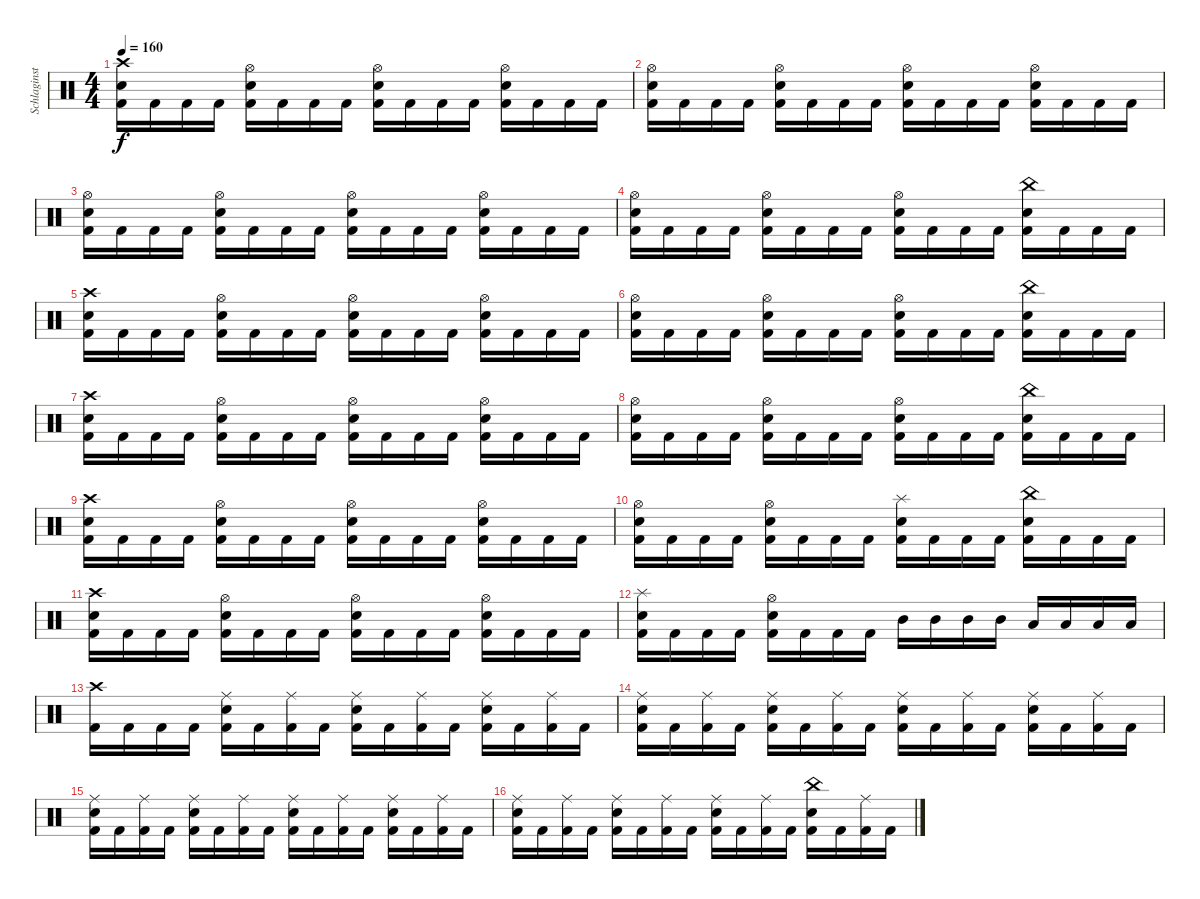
\track ("Schlaginstrumente - Auswahl" "Schlaginst") {instrument percussion}
\staff {score}
\articulation defaults
\ts (4 4)
\tempo 160
\clef neutral
\ks c
("Crash high (hit)" "Snare (hit) 2" "Kick (hit) 2").16{dy f} "Kick (hit) 2".16 "Kick (hit) 2".16 "Kick (hit) 2".16 ("Hi-Hat (open)" "Snare (hit) 2" "Kick (hit) 2").16 "Kick (hit) 2".16 "Kick (hit) 2".16 "Kick (hit) 2".16 ("Hi-Hat (open)" "Snare (hit) 2" "Kick (hit) 2").16 "Kick (hit) 2".16 "Kick (hit) 2".16 "Kick (hit) 2".16 ("Hi-Hat (open)" "Snare (hit) 2" "Kick (hit) 2").16 "Kick (hit) 2".16 "Kick (hit) 2".16 "Kick (hit) 2".16 |
("Hi-Hat (open)" "Snare (hit) 2" "Kick (hit) 2").16 "Kick (hit) 2".16 "Kick (hit) 2".16 "Kick (hit) 2".16 ("Hi-Hat (open)" "Snare (hit) 2" "Kick (hit) 2").16 "Kick (hit) 2".16 "Kick (hit) 2".16 "Kick (hit) 2".16 ("Hi-Hat (open)" "Snare (hit) 2" "Kick (hit) 2").16 "Kick (hit) 2".16 "Kick (hit) 2".16 "Kick (hit) 2".16 ("Hi-Hat (open)" "Snare (hit) 2" "Kick (hit) 2").16 "Kick (hit) 2".16 "Kick (hit) 2".16 "Kick (hit) 2".16 |
("Hi-Hat (open)" "Snare (hit) 2" "Kick (hit) 2").16 "Kick (hit) 2".16 "Kick (hit) 2".16 "Kick (hit) 2".16 ("Hi-Hat (open)" "Snare (hit) 2" "Kick (hit) 2").16 "Kick (hit) 2".16 "Kick (hit) 2".16 "Kick (hit) 2".16 ("Hi-Hat (open)" "Snare (hit) 2" "Kick (hit) 2").16 "Kick (hit) 2".16 "Kick (hit) 2".16 "Kick (hit) 2".16 ("Hi-Hat (open)" "Snare (hit) 2" "Kick (hit) 2").16 "Kick (hit) 2".16 "Kick (hit) 2".16 "Kick (hit) 2".16 |
("Hi-Hat (open)" "Snare (hit) 2" "Kick (hit) 2").16 "Kick (hit) 2".16 "Kick (hit) 2".16 "Kick (hit) 2".16 ("Hi-Hat (open)" "Snare (hit) 2" "Kick (hit) 2").16 "Kick (hit) 2".16 "Kick (hit) 2".16 "Kick (hit) 2".16 ("Hi-Hat (open)" "Snare (hit) 2" "Kick (hit) 2").16 "Kick (hit) 2".16 "Kick (hit) 2".16 "Kick (hit) 2".16 ("China (hit)" "Snare (hit) 2" "Kick (hit) 2").16 "Kick (hit) 2".16 "Kick (hit) 2".16 "Kick (hit) 2".16 |
("Crash high (hit)" "Snare (hit) 2" "Kick (hit) 2").16 "Kick (hit) 2".16 "Kick (hit) 2".16 "Kick (hit) 2".16 ("Hi-Hat (open)" "Snare (hit) 2" "Kick (hit) 2").16 "Kick (hit) 2".16 "Kick (hit) 2".16 "Kick (hit) 2".16 ("Hi-Hat (open)" "Snare (hit) 2" "Kick (hit) 2").16 "Kick (hit) 2".16 "Kick (hit) 2".16 "Kick (hit) 2".16 ("Hi-Hat (open)" "Snare (hit) 2" "Kick (hit) 2").16 "Kick (hit) 2".16 "Kick (hit) 2".16 "Kick (hit) 2".16 |
("Hi-Hat (open)" "Snare (hit) 2" "Kick (hit) 2").16 "Kick (hit) 2".16 "Kick (hit) 2".16 "Kick (hit) 2".16 ("Hi-Hat (open)" "Snare (hit) 2" "Kick (hit) 2").16 "Kick (hit) 2".16 "Kick (hit) 2".16 "Kick (hit) 2".16 ("Hi-Hat (open)" "Snare (hit) 2" "Kick (hit) 2").16 "Kick (hit) 2".16 "Kick (hit) 2".16 "Kick (hit) 2".16 ("China (hit)" "Snare (hit) 2" "Kick (hit) 2").16 "Kick (hit) 2".16 "Kick (hit) 2".16 "Kick (hit) 2".16 |
("Crash high (hit)" "Snare (hit) 2" "Kick (hit) 2").16 "Kick (hit) 2".16 "Kick (hit) 2".16 "Kick (hit) 2".16 ("Hi-Hat (open)" "Snare (hit) 2" "Kick (hit) 2").16 "Kick (hit) 2".16 "Kick (hit) 2".16 "Kick (hit) 2".16 ("Hi-Hat (open)" "Snare (hit) 2" "Kick (hit) 2").16 "Kick (hit) 2".16 "Kick (hit) 2".16 "Kick (hit) 2".16 ("Hi-Hat (open)" "Snare (hit) 2" "Kick (hit) 2").16 "Kick (hit) 2".16 "Kick (hit) 2".16 "Kick (hit) 2".16 |
("Hi-Hat (open)" "Snare (hit) 2" "Kick (hit) 2").16 "Kick (hit) 2".16 "Kick (hit) 2".16 "Kick (hit) 2".16 ("Hi-Hat (open)" "Snare (hit) 2" "Kick (hit) 2").16 "Kick (hit) 2".16 "Kick (hit) 2".16 "Kick (hit) 2".16 ("Hi-Hat (open)" "Snare (hit) 2" "Kick (hit) 2").16 "Kick (hit) 2".16 "Kick (hit) 2".16 "Kick (hit) 2".16 ("China (hit)" "Snare (hit) 2" "Kick (hit) 2").16 "Kick (hit) 2".16 "Kick (hit) 2".16 "Kick (hit) 2".16 |
("Crash high (hit)" "Snare (hit) 2" "Kick (hit) 2").16 "Kick (hit) 2".16 "Kick (hit) 2".16 "Kick (hit) 2".16 ("Hi-Hat (open)" "Snare (hit) 2" "Kick (hit) 2").16 "Kick (hit) 2".16 "Kick (hit) 2".16 "Kick (hit) 2".16 ("Hi-Hat (open)" "Snare (hit) 2" "Kick (hit) 2").16 "Kick (hit) 2".16 "Kick (hit) 2".16 "Kick (hit) 2".16 ("Hi-Hat (open)" "Snare (hit) 2" "Kick (hit) 2").16 "Kick (hit) 2".16 "Kick (hit) 2".16 "Kick (hit) 2".16 |
("Hi-Hat (open)" "Snare (hit) 2" "Kick (hit) 2").16 "Kick (hit) 2".16 "Kick (hit) 2".16 "Kick (hit) 2".16 ("Hi-Hat (open)" "Snare (hit) 2" "Kick (hit) 2").16 "Kick (hit) 2".16 "Kick (hit) 2".16 "Kick (hit) 2".16 ("Splash (hit)" "Snare (hit) 2" "Kick (hit) 2").16 "Kick (hit) 2".16 "Kick (hit) 2".16 "Kick (hit) 2".16 ("China (hit)" "Snare (hit) 2" "Kick (hit) 2").16 "Kick (hit) 2".16 "Kick (hit) 2".16 "Kick (hit) 2".16 |
("Crash high (hit)" "Snare (hit) 2" "Kick (hit) 2").16 "Kick (hit) 2".16 "Kick (hit) 2".16 "Kick (hit) 2".16 ("Hi-Hat (open)" "Snare (hit) 2" "Kick (hit) 2").16 "Kick (hit) 2".16 "Kick (hit) 2".16 "Kick (hit) 2".16 ("Hi-Hat (open)" "Snare (hit) 2" "Kick (hit) 2").16 "Kick (hit) 2".16 "Kick (hit) 2".16 "Kick (hit) 2".16 ("Hi-Hat (open)" "Snare (hit) 2" "Kick (hit) 2").16 "Kick (hit) 2".16 "Kick (hit) 2".16 "Kick (hit) 2".16 |
("Splash (hit)" "Snare (hit) 2" "Kick (hit) 2").16 "Kick (hit) 2".16 "Kick (hit) 2".16 "Kick (hit) 2".16 ("Hi-Hat (open)" "Snare (hit) 2" "Kick (hit) 2").16 "Kick (hit) 2".16 "Kick (hit) 2".16 "Kick (hit) 2".16 "Mid Tom (hit)".16 "Mid Tom (hit)".16 "Mid Tom (hit)".16 "Mid Tom (hit)".16 "Low Tom (hit)".16 "Low Tom (hit)".16 "Low Tom (hit)".16 "Low Tom (hit)".16 |
("Crash high (hit)" "Kick (hit) 2").16 "Kick (hit) 2".16 "Kick (hit) 2".16 "Kick (hit) 2".16 ("Ride (middle)" "Snare (hit) 2" "Kick (hit) 2").16 "Kick (hit) 2".16 ("Ride (middle)" "Kick (hit) 2").16 "Kick (hit) 2".16 ("Ride (middle)" "Snare (hit) 2" "Kick (hit) 2").16 "Kick (hit) 2".16 ("Ride (middle)" "Kick (hit) 2").16 "Kick (hit) 2".16 ("Ride (middle)" "Snare (hit) 2" "Kick (hit) 2").16 "Kick (hit) 2".16 ("Ride (middle)" "Kick (hit) 2").16 "Kick (hit) 2".16 |
("Ride (middle)" "Snare (hit) 2" "Kick (hit) 2").16 "Kick (hit) 2".16 ("Ride (middle)" "Kick (hit) 2").16 "Kick (hit) 2".16 ("Ride (middle)" "Snare (hit) 2" "Kick (hit) 2").16 "Kick (hit) 2".16 ("Ride (middle)" "Kick (hit) 2").16 "Kick (hit) 2".16 ("Ride (middle)" "Snare (hit) 2" "Kick (hit) 2").16 "Kick (hit) 2".16 ("Ride (middle)" "Kick (hit) 2").16 "Kick (hit) 2".16 ("Ride (middle)" "Snare (hit) 2" "Kick (hit) 2").16 "Kick (hit) 2".16 ("Ride (middle)" "Kick (hit) 2").16 "Kick (hit) 2".16 |
("Ride (middle)" "Snare (hit) 2" "Kick (hit) 2").16 "Kick (hit) 2".16 ("Ride (middle)" "Kick (hit) 2").16 "Kick (hit) 2".16 ("Ride (middle)" "Snare (hit) 2" "Kick (hit) 2").16 "Kick (hit) 2".16 ("Ride (middle)" "Kick (hit) 2").16 "Kick (hit) 2".16 ("Ride (middle)" "Snare (hit) 2" "Kick (hit) 2").16 "Kick (hit) 2".16 ("Ride (middle)" "Kick (hit) 2").16 "Kick (hit) 2".16 ("Ride (middle)" "Snare (hit) 2" "Kick (hit) 2").16 "Kick (hit) 2".16 ("Ride (middle)" "Kick (hit) 2").16 "Kick (hit) 2".16 |
("Ride (middle)" "Snare (hit) 2" "Kick (hit) 2").16 "Kick (hit) 2".16 ("Ride (middle)" "Kick (hit) 2").16 "Kick (hit) 2".16 ("Ride (middle)" "Snare (hit) 2" "Kick (hit) 2").16 "Kick (hit) 2".16 ("Ride (middle)" "Kick (hit) 2").16 "Kick (hit) 2".16 ("Ride (middle)" "Snare (hit) 2" "Kick (hit) 2").16 "Kick (hit) 2".16 ("Ride (middle)" "Kick (hit) 2").16 "Kick (hit) 2".16 ("China (hit)" "Snare (hit) 2" "Kick (hit) 2").16 "Kick (hit) 2".16 ("Ride (middle)" "Kick (hit) 2").16 "Kick (hit) 2".16
